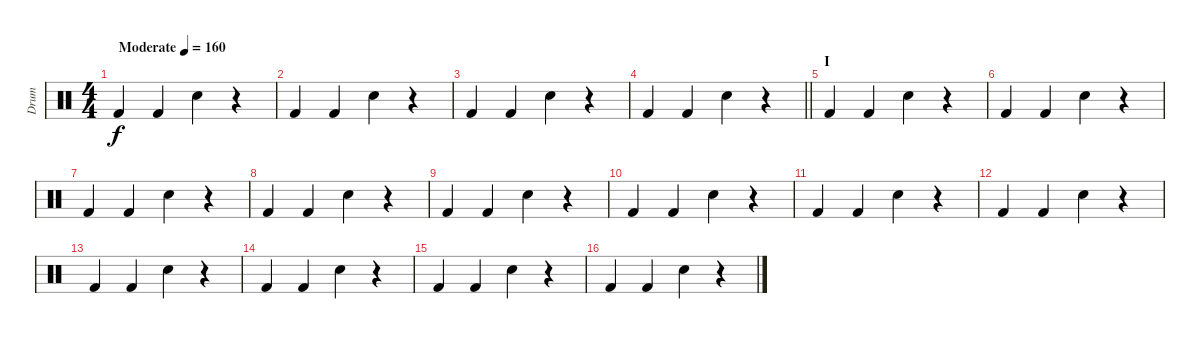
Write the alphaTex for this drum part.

\track ("Drum" "Drum") {instrument percussion}
\staff {score}
\articulation defaults
\ts (4 4)
\tempo (160 "Moderate")
\clef neutral
\ks c "Kick (hit) 2".4{dy f} "Kick (hit) 2".4 "Electric Snare (hit)".4
r.4 |
"Kick (hit) 2".4 "Kick (hit) 2".4 "Electric Snare (hit)".4 r.4 |
"Kick (hit) 2".4 "Kick (hit) 2".4 "Electric Snare (hit)".4 r.4 |
\barLineRight lightlight "Kick (hit) 2".4 "Kick (hit) 2".4 "Electric Snare (hit)".4
r.4 |
\section ("" "I")
"Kick (hit) 2".4 "Kick (hit) 2".4 "Electric Snare (hit)".4 r.4 |
"Kick (hit) 2".4 "Kick (hit) 2".4 "Electric Snare (hit)".4 r.4 |
"Kick (hit) 2".4 "Kick (hit) 2".4 "Electric Snare (hit)".4 r.4 |
"Kick (hit) 2".4 "Kick (hit) 2".4 "Electric Snare (hit)".4 r.4 |
"Kick (hit) 2".4 "Kick (hit) 2".4 "Electric Snare (hit)".4 r.4 |
"Kick (hit) 2".4 "Kick (hit) 2".4 "Electric Snare (hit)".4 r.4 |
"Kick (hit) 2".4 "Kick (hit) 2".4 "Electric Snare (hit)".4 r.4 |
"Kick (hit) 2".4 "Kick (hit) 2".4 "Electric Snare (hit)".4 r.4 |
"Kick (hit) 2".4 "Kick (hit) 2".4 "Electric Snare (hit)".4 r.4 |
"Kick (hit) 2".4 "Kick (hit) 2".4 "Electric Snare (hit)".4 r.4 |
"Kick (hit) 2".4 "Kick (hit) 2".4 "Electric Snare (hit)".4 r.4 |
"Kick (hit) 2".4 "Kick (hit) 2".4 "Electric Snare (hit)".4 r.4
